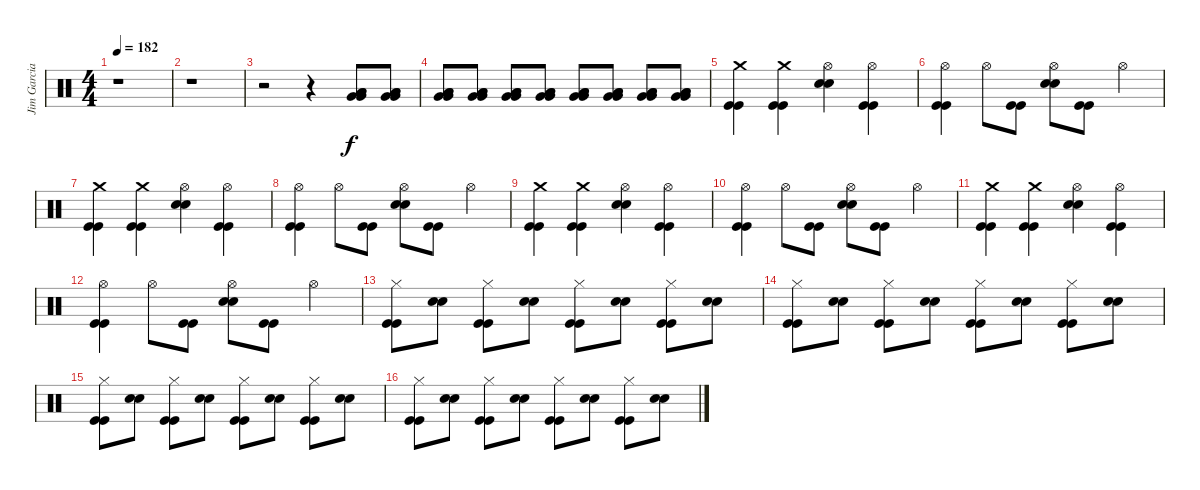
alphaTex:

\track ("Jim Garcia" "Jim Garcia") {instrument percussion}
\staff {score}
\articulation defaults
\ts (4 4)
\tempo 182
\clef neutral
\ks c
r.1{dy f} |
r.1 |
r.2 r.4 ("Very Low Tom (hit)" "Very Low Tom (hit)" "Low Floor Tom (hit)" "Low Floor Tom (hit)").8{volume 7} ("Very Low Tom (hit)" "Very Low Tom (hit)" "Low Floor Tom (hit)" "Low Floor Tom (hit)").8{volume 8} |
("Very Low Tom (hit)" "Very Low Tom (hit)" "Low Floor Tom (hit)" "Low Floor Tom (hit)").8{volume 8} ("Very Low Tom (hit)" "Very Low Tom (hit)" "Low Floor Tom (hit)" "Low Floor Tom (hit)").8{volume 9} ("Very Low Tom (hit)" "Very Low Tom (hit)" "Low Floor Tom (hit)" "Low Floor Tom (hit)").8{volume 10} ("Very Low Tom (hit)" "Very Low Tom (hit)" "Low Floor Tom (hit)" "Low Floor Tom (hit)").8{volume 10} ("Very Low Tom (hit)" "Very Low Tom (hit)" "Low Floor Tom (hit)" "Low Floor Tom (hit)").8{volume 11} ("Very Low Tom (hit)" "Very Low Tom (hit)" "Low Floor Tom (hit)" "Low Floor Tom (hit)").8{volume 12} ("Very Low Tom (hit)" "Very Low Tom (hit)" "Low Floor Tom (hit)" "Low Floor Tom (hit)").8{volume 12} ("Very Low Tom (hit)" "Very Low Tom (hit)" "Low Floor Tom (hit)" "Low Floor Tom (hit)").8{volume 13} |
("Crash medium (hit)" "Kick (hit)" "Kick (hit)").4 ("Crash medium (hit)" "Kick (hit)" "Kick (hit)").4 ("Snare (hit) 2" "Snare (hit) 2" "Hi-Hat (open)").4 ("Hi-Hat (open)" "Kick (hit)" "Kick (hit)").4 |
("Hi-Hat (open)" "Kick (hit)" "Kick (hit)").4 "Hi-Hat (open)".8 ("Kick (hit)" "Kick (hit)").8 ("Snare (hit) 2" "Snare (hit) 2" "Hi-Hat (open)").8 ("Kick (hit)" "Kick (hit)").8 "Hi-Hat (open)".4 |
("Crash medium (hit)" "Kick (hit)" "Kick (hit)").4 ("Crash medium (hit)" "Kick (hit)" "Kick (hit)").4 ("Snare (hit) 2" "Snare (hit) 2" "Hi-Hat (open)").4 ("Hi-Hat (open)" "Kick (hit)" "Kick (hit)").4 |
("Hi-Hat (open)" "Kick (hit)" "Kick (hit)").4 "Hi-Hat (open)".8 ("Kick (hit)" "Kick (hit)").8 ("Snare (hit) 2" "Snare (hit) 2" "Hi-Hat (open)").8 ("Kick (hit)" "Kick (hit)").8 "Hi-Hat (open)".4 |
("Crash medium (hit)" "Kick (hit)" "Kick (hit)").4 ("Crash medium (hit)" "Kick (hit)" "Kick (hit)").4 ("Snare (hit) 2" "Snare (hit) 2" "Hi-Hat (open)").4 ("Hi-Hat (open)" "Kick (hit)" "Kick (hit)").4 |
("Hi-Hat (open)" "Kick (hit)" "Kick (hit)").4 "Hi-Hat (open)".8 ("Kick (hit)" "Kick (hit)").8 ("Snare (hit) 2" "Snare (hit) 2" "Hi-Hat (open)").8 ("Kick (hit)" "Kick (hit)").8 "Hi-Hat (open)".4 |
("Crash medium (hit)" "Kick (hit)" "Kick (hit)").4 ("Crash medium (hit)" "Kick (hit)" "Kick (hit)").4 ("Snare (hit) 2" "Snare (hit) 2" "Hi-Hat (open)").4 ("Hi-Hat (open)" "Kick (hit)" "Kick (hit)").4 |
("Hi-Hat (open)" "Kick (hit)" "Kick (hit)").4 "Hi-Hat (open)".8 ("Kick (hit)" "Kick (hit)").8 ("Snare (hit) 2" "Snare (hit) 2" "Hi-Hat (open)").8 ("Kick (hit)" "Kick (hit)").8 "Hi-Hat (open)".4 |
("Hi-Hat (closed)" "Kick (hit)" "Kick (hit)").8 ("Snare (hit) 2" "Snare (hit) 2").8 ("Hi-Hat (closed)" "Kick (hit)" "Kick (hit)").8 ("Snare (hit) 2" "Snare (hit) 2").8 ("Hi-Hat (closed)" "Kick (hit)" "Kick (hit)").8 ("Snare (hit) 2" "Snare (hit) 2").8 ("Hi-Hat (closed)" "Kick (hit)" "Kick (hit)").8 ("Snare (hit) 2" "Snare (hit) 2").8 |
("Hi-Hat (closed)" "Kick (hit)" "Kick (hit)").8 ("Snare (hit) 2" "Snare (hit) 2").8 ("Hi-Hat (closed)" "Kick (hit)" "Kick (hit)").8 ("Snare (hit) 2" "Snare (hit) 2").8 ("Hi-Hat (closed)" "Kick (hit)" "Kick (hit)").8 ("Snare (hit) 2" "Snare (hit) 2").8 ("Hi-Hat (closed)" "Kick (hit)" "Kick (hit)").8 ("Snare (hit) 2" "Snare (hit) 2").8 |
("Hi-Hat (closed)" "Kick (hit)" "Kick (hit)").8 ("Snare (hit) 2" "Snare (hit) 2").8 ("Hi-Hat (closed)" "Kick (hit)" "Kick (hit)").8 ("Snare (hit) 2" "Snare (hit) 2").8 ("Hi-Hat (closed)" "Kick (hit)" "Kick (hit)").8 ("Snare (hit) 2" "Snare (hit) 2").8 ("Hi-Hat (closed)" "Kick (hit)" "Kick (hit)").8 ("Snare (hit) 2" "Snare (hit) 2").8 |
("Hi-Hat (closed)" "Kick (hit)" "Kick (hit)").8 ("Snare (hit) 2" "Snare (hit) 2").8 ("Hi-Hat (closed)" "Kick (hit)" "Kick (hit)").8 ("Snare (hit) 2" "Snare (hit) 2").8 ("Hi-Hat (closed)" "Kick (hit)" "Kick (hit)").8 ("Snare (hit) 2" "Snare (hit) 2").8 ("Hi-Hat (closed)" "Kick (hit)" "Kick (hit)").8 ("Snare (hit) 2" "Snare (hit) 2").8
